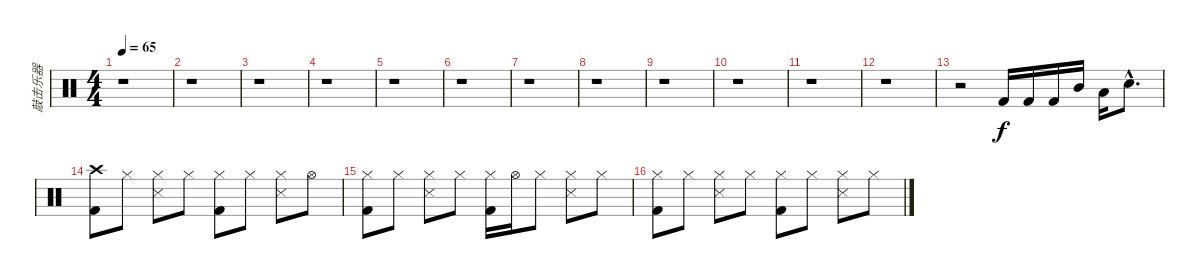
\track ("敲击乐器" "敲击乐器") {instrument percussion}
\staff {score}
\articulation defaults
\ts (4 4)
\tempo 65
\clef neutral
\ks c
r.1{dy f} |
r.1 |
r.1 |
r.1 |
r.1 |
r.1 |
r.1 |
r.1 |
r.1 |
r.1 |
r.1 |
r.1 |
r.2 "Kick (hit) 2".16 "Kick (hit) 2".16 "Kick (hit) 2".16 "Mid Tom (hit)".16 "Low Tom (hit)".16 "Snare (hit) 2"{hac}.8{d} |
("Crash high (hit)" "Kick (hit) 2").8 "Hi-Hat (closed)".8 ("Hi-Hat (closed)" "Snare (side stick) 3").8 "Hi-Hat (closed)".8 ("Hi-Hat (closed)" "Kick (hit) 2").8 "Hi-Hat (closed)".8 ("Hi-Hat (closed)" "Snare (side stick) 3").8 "Hi-Hat (open)".8 |
("Hi-Hat (closed)" "Kick (hit) 2").8 "Hi-Hat (closed)".8 ("Hi-Hat (closed)" "Snare (side stick) 3").8 "Hi-Hat (closed)".8 ("Hi-Hat (closed)" "Kick (hit) 2").16 "Hi-Hat (open)".16 "Hi-Hat (closed)".8 ("Hi-Hat (closed)" "Snare (side stick) 3").8 "Hi-Hat (closed)".8 |
("Hi-Hat (closed)" "Kick (hit) 2").8 "Hi-Hat (closed)".8 ("Hi-Hat (closed)" "Snare (side stick) 3").8 "Hi-Hat (closed)".8 ("Hi-Hat (closed)" "Kick (hit) 2").8 "Hi-Hat (closed)".8 ("Hi-Hat (closed)" "Snare (side stick) 3").8 "Hi-Hat (closed)".8
